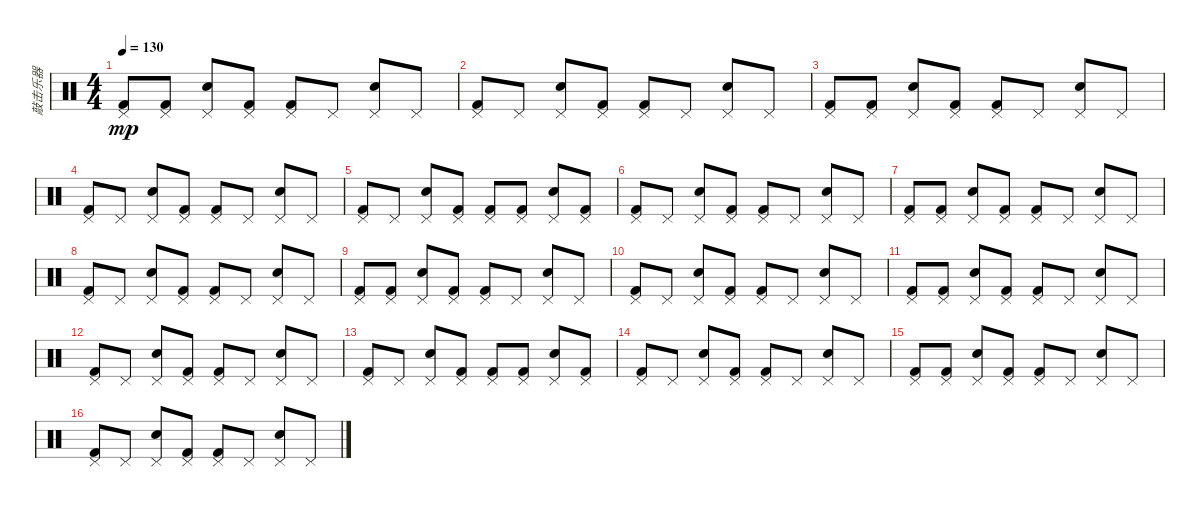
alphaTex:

\track ("敲击乐器" "敲击乐器") {instrument percussion}
\staff {score}
\articulation defaults
\ts (4 4)
\tempo 130
\clef neutral
\ks c
("Pedal Hi-Hat (hit)" "Kick (hit) 2").8{dy mp} ("Pedal Hi-Hat (hit)" "Kick (hit) 2").8 ("Pedal Hi-Hat (hit)" "Electric Snare (hit)").8 ("Pedal Hi-Hat (hit)" "Kick (hit) 2").8 ("Pedal Hi-Hat (hit)" "Kick (hit) 2").8 "Pedal Hi-Hat (hit)".8 ("Pedal Hi-Hat (hit)" "Electric Snare (hit)").8 "Pedal Hi-Hat (hit)".8 |
("Pedal Hi-Hat (hit)" "Kick (hit) 2").8 "Pedal Hi-Hat (hit)".8 ("Pedal Hi-Hat (hit)" "Electric Snare (hit)").8 ("Pedal Hi-Hat (hit)" "Kick (hit) 2").8 ("Pedal Hi-Hat (hit)" "Kick (hit) 2").8 "Pedal Hi-Hat (hit)".8 ("Pedal Hi-Hat (hit)" "Electric Snare (hit)").8 "Pedal Hi-Hat (hit)".8 |
("Pedal Hi-Hat (hit)" "Kick (hit) 2").8 ("Pedal Hi-Hat (hit)" "Kick (hit) 2").8 ("Pedal Hi-Hat (hit)" "Electric Snare (hit)").8 ("Pedal Hi-Hat (hit)" "Kick (hit) 2").8 ("Pedal Hi-Hat (hit)" "Kick (hit) 2").8 "Pedal Hi-Hat (hit)".8 ("Pedal Hi-Hat (hit)" "Electric Snare (hit)").8 "Pedal Hi-Hat (hit)".8 |
("Pedal Hi-Hat (hit)" "Kick (hit) 2").8 "Pedal Hi-Hat (hit)".8 ("Pedal Hi-Hat (hit)" "Electric Snare (hit)").8 ("Pedal Hi-Hat (hit)" "Kick (hit) 2").8 ("Pedal Hi-Hat (hit)" "Kick (hit) 2").8 "Pedal Hi-Hat (hit)".8 ("Pedal Hi-Hat (hit)" "Electric Snare (hit)").8 "Pedal Hi-Hat (hit)".8 |
("Pedal Hi-Hat (hit)" "Kick (hit) 2").8 "Pedal Hi-Hat (hit)".8 ("Pedal Hi-Hat (hit)" "Electric Snare (hit)").8 ("Pedal Hi-Hat (hit)" "Kick (hit) 2").8 ("Pedal Hi-Hat (hit)" "Kick (hit) 2").8 ("Pedal Hi-Hat (hit)" "Kick (hit) 2").8 ("Pedal Hi-Hat (hit)" "Electric Snare (hit)").8 ("Pedal Hi-Hat (hit)" "Kick (hit) 2").8 |
("Pedal Hi-Hat (hit)" "Kick (hit) 2").8 "Pedal Hi-Hat (hit)".8 ("Pedal Hi-Hat (hit)" "Electric Snare (hit)").8 ("Pedal Hi-Hat (hit)" "Kick (hit) 2").8 ("Pedal Hi-Hat (hit)" "Kick (hit) 2").8 "Pedal Hi-Hat (hit)".8 ("Pedal Hi-Hat (hit)" "Electric Snare (hit)").8 "Pedal Hi-Hat (hit)".8 |
("Pedal Hi-Hat (hit)" "Kick (hit) 2").8 ("Pedal Hi-Hat (hit)" "Kick (hit) 2").8 ("Pedal Hi-Hat (hit)" "Electric Snare (hit)").8 ("Pedal Hi-Hat (hit)" "Kick (hit) 2").8 ("Pedal Hi-Hat (hit)" "Kick (hit) 2").8 "Pedal Hi-Hat (hit)".8 ("Pedal Hi-Hat (hit)" "Electric Snare (hit)").8 "Pedal Hi-Hat (hit)".8 |
("Pedal Hi-Hat (hit)" "Kick (hit) 2").8 "Pedal Hi-Hat (hit)".8 ("Pedal Hi-Hat (hit)" "Electric Snare (hit)").8 ("Pedal Hi-Hat (hit)" "Kick (hit) 2").8 ("Pedal Hi-Hat (hit)" "Kick (hit) 2").8 "Pedal Hi-Hat (hit)".8 ("Pedal Hi-Hat (hit)" "Electric Snare (hit)").8 "Pedal Hi-Hat (hit)".8 |
("Pedal Hi-Hat (hit)" "Kick (hit) 2").8 ("Pedal Hi-Hat (hit)" "Kick (hit) 2").8 ("Pedal Hi-Hat (hit)" "Electric Snare (hit)").8 ("Pedal Hi-Hat (hit)" "Kick (hit) 2").8 ("Pedal Hi-Hat (hit)" "Kick (hit) 2").8 "Pedal Hi-Hat (hit)".8 ("Pedal Hi-Hat (hit)" "Electric Snare (hit)").8 "Pedal Hi-Hat (hit)".8 |
("Pedal Hi-Hat (hit)" "Kick (hit) 2").8 "Pedal Hi-Hat (hit)".8 ("Pedal Hi-Hat (hit)" "Electric Snare (hit)").8 ("Pedal Hi-Hat (hit)" "Kick (hit) 2").8 ("Pedal Hi-Hat (hit)" "Kick (hit) 2").8 "Pedal Hi-Hat (hit)".8 ("Pedal Hi-Hat (hit)" "Electric Snare (hit)").8 "Pedal Hi-Hat (hit)".8 |
("Pedal Hi-Hat (hit)" "Kick (hit) 2").8 ("Pedal Hi-Hat (hit)" "Kick (hit) 2").8 ("Pedal Hi-Hat (hit)" "Electric Snare (hit)").8 ("Pedal Hi-Hat (hit)" "Kick (hit) 2").8 ("Pedal Hi-Hat (hit)" "Kick (hit) 2").8 "Pedal Hi-Hat (hit)".8 ("Pedal Hi-Hat (hit)" "Electric Snare (hit)").8 "Pedal Hi-Hat (hit)".8 |
("Pedal Hi-Hat (hit)" "Kick (hit) 2").8 "Pedal Hi-Hat (hit)".8 ("Pedal Hi-Hat (hit)" "Electric Snare (hit)").8 ("Pedal Hi-Hat (hit)" "Kick (hit) 2").8 ("Pedal Hi-Hat (hit)" "Kick (hit) 2").8 "Pedal Hi-Hat (hit)".8 ("Pedal Hi-Hat (hit)" "Electric Snare (hit)").8 "Pedal Hi-Hat (hit)".8 |
("Pedal Hi-Hat (hit)" "Kick (hit) 2").8 "Pedal Hi-Hat (hit)".8 ("Pedal Hi-Hat (hit)" "Electric Snare (hit)").8 ("Pedal Hi-Hat (hit)" "Kick (hit) 2").8 ("Pedal Hi-Hat (hit)" "Kick (hit) 2").8 ("Pedal Hi-Hat (hit)" "Kick (hit) 2").8 ("Pedal Hi-Hat (hit)" "Electric Snare (hit)").8 ("Pedal Hi-Hat (hit)" "Kick (hit) 2").8 |
("Pedal Hi-Hat (hit)" "Kick (hit) 2").8 "Pedal Hi-Hat (hit)".8 ("Pedal Hi-Hat (hit)" "Electric Snare (hit)").8 ("Pedal Hi-Hat (hit)" "Kick (hit) 2").8 ("Pedal Hi-Hat (hit)" "Kick (hit) 2").8 "Pedal Hi-Hat (hit)".8 ("Pedal Hi-Hat (hit)" "Electric Snare (hit)").8 "Pedal Hi-Hat (hit)".8 |
("Pedal Hi-Hat (hit)" "Kick (hit) 2").8 ("Pedal Hi-Hat (hit)" "Kick (hit) 2").8 ("Pedal Hi-Hat (hit)" "Electric Snare (hit)").8 ("Pedal Hi-Hat (hit)" "Kick (hit) 2").8 ("Pedal Hi-Hat (hit)" "Kick (hit) 2").8 "Pedal Hi-Hat (hit)".8 ("Pedal Hi-Hat (hit)" "Electric Snare (hit)").8 "Pedal Hi-Hat (hit)".8 |
("Pedal Hi-Hat (hit)" "Kick (hit) 2").8 "Pedal Hi-Hat (hit)".8 ("Pedal Hi-Hat (hit)" "Electric Snare (hit)").8 ("Pedal Hi-Hat (hit)" "Kick (hit) 2").8 ("Pedal Hi-Hat (hit)" "Kick (hit) 2").8 "Pedal Hi-Hat (hit)".8 ("Pedal Hi-Hat (hit)" "Electric Snare (hit)").8 "Pedal Hi-Hat (hit)".8
